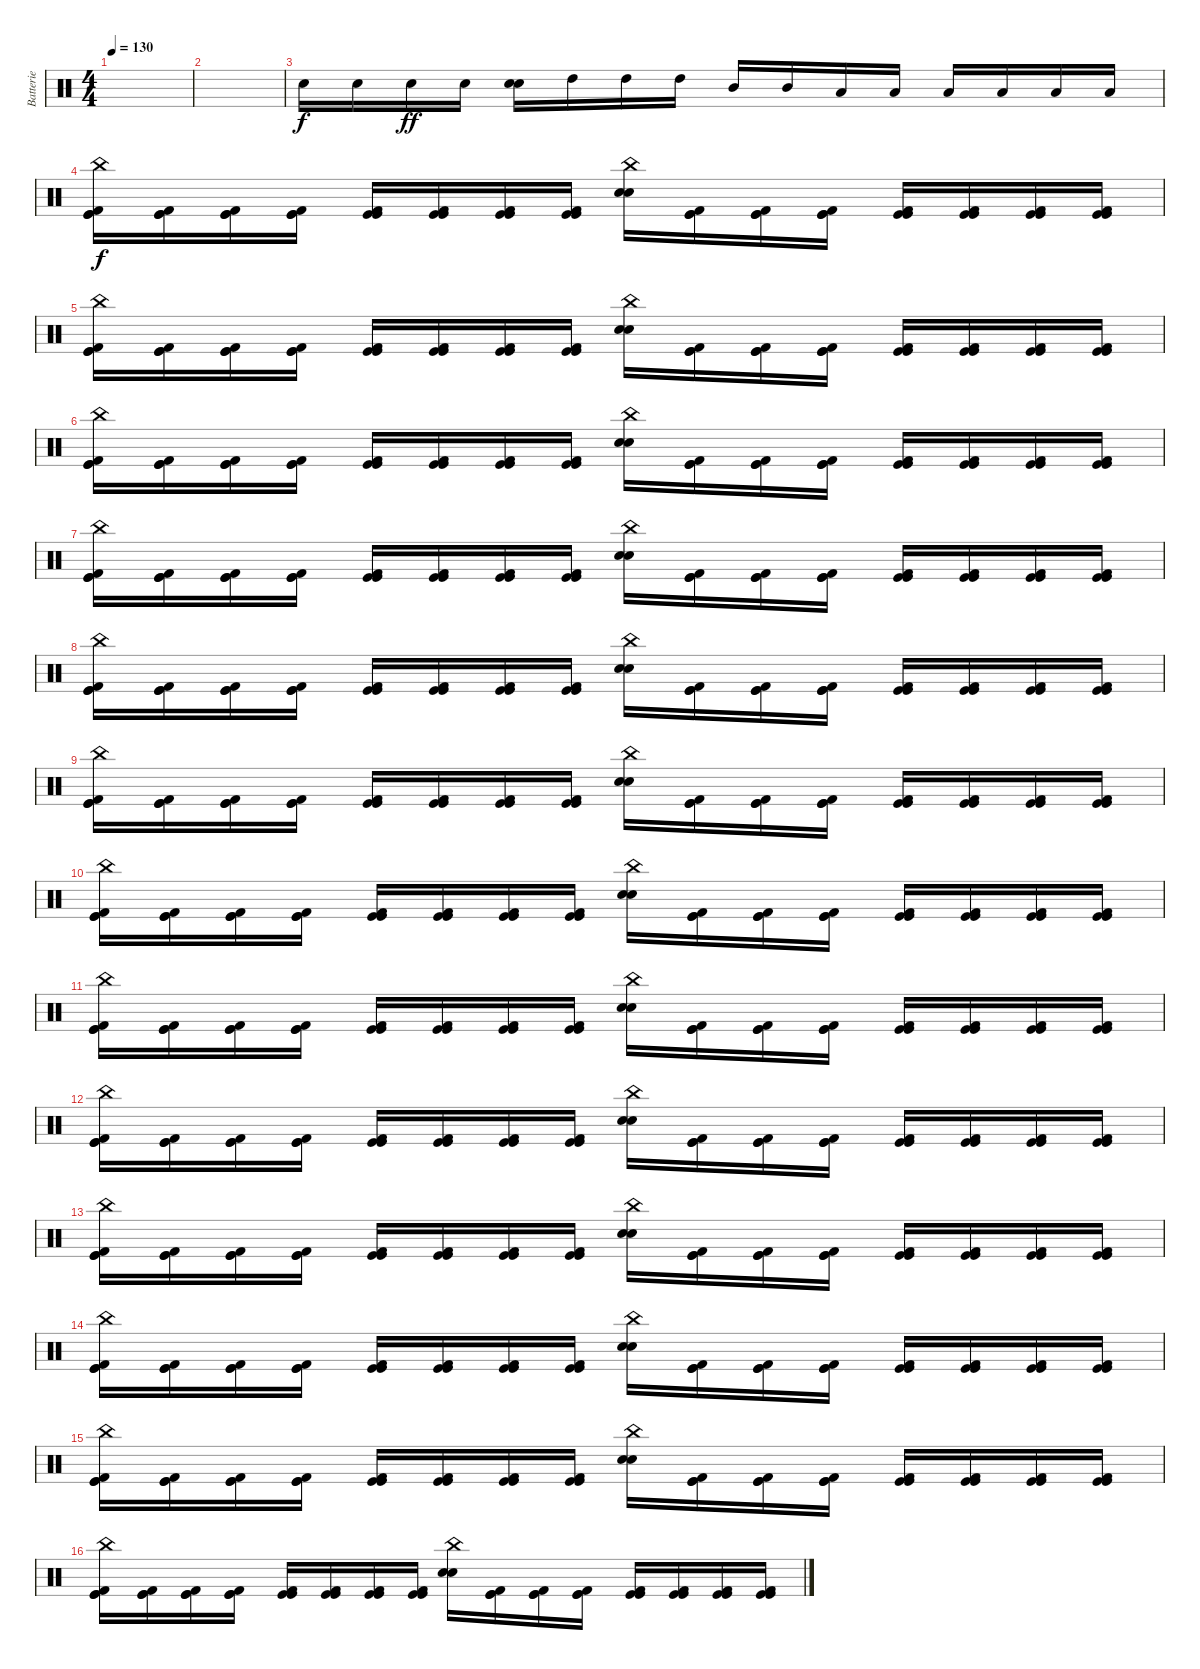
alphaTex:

\track ("Batterie" "Batterie") {instrument percussion}
\staff {score}
\articulation defaults
\ts (4 4)
\tempo 130
\clef neutral
\ks c
|
|
"Electric Snare (hit)".16 "Electric Snare (hit)".16 "Electric Snare (hit)".16{dy ff} "Electric Snare (hit)".16 ("Electric Snare (hit)" "Electric Snare (hit)").16 "High Tom (hit)".16 "High Tom (hit)".16 "High Tom (hit)".16 "Mid Tom (hit)".16 "Mid Tom (hit)".16 "Low Tom (hit)".16 "Low Tom (hit)".16 "Low Floor Tom (hit)".16 "Low Floor Tom (hit)".16 "Low Floor Tom (hit)".16 "Low Floor Tom (hit)".16 |
("China (hit)" "Kick (hit)" "Kick (hit) 2" "Kick (hit)").16{dy f} ("Kick (hit)" "Kick (hit)" "Kick (hit) 2").16 ("Kick (hit)" "Kick (hit) 2" "Kick (hit)").16 ("Kick (hit)" "Kick (hit)" "Kick (hit) 2").16 ("Kick (hit)" "Kick (hit) 2" "Kick (hit)").16 ("Kick (hit)" "Kick (hit)" "Kick (hit) 2").16 ("Kick (hit)" "Kick (hit) 2" "Kick (hit)").16 ("Kick (hit)" "Kick (hit)" "Kick (hit) 2").16 ("China (hit)" "Electric Snare (hit)" "Electric Snare (hit)").16 ("Kick (hit)" "Kick (hit)" "Kick (hit) 2").16 ("Kick (hit)" "Kick (hit) 2" "Kick (hit)").16 ("Kick (hit)" "Kick (hit)" "Kick (hit) 2").16 ("Kick (hit)" "Kick (hit) 2" "Kick (hit)").16 ("Kick (hit)" "Kick (hit)" "Kick (hit) 2").16 ("Kick (hit)" "Kick (hit) 2" "Kick (hit)").16 ("Kick (hit)" "Kick (hit) 2" "Kick (hit)").16 |
("China (hit)" "Kick (hit)" "Kick (hit) 2" "Kick (hit)").16 ("Kick (hit)" "Kick (hit)" "Kick (hit) 2").16 ("Kick (hit)" "Kick (hit) 2" "Kick (hit)").16 ("Kick (hit)" "Kick (hit)" "Kick (hit) 2").16 ("Kick (hit)" "Kick (hit) 2" "Kick (hit)").16 ("Kick (hit)" "Kick (hit)" "Kick (hit) 2").16 ("Kick (hit)" "Kick (hit) 2" "Kick (hit)").16 ("Kick (hit)" "Kick (hit)" "Kick (hit) 2").16 ("China (hit)" "Electric Snare (hit)" "Electric Snare (hit)").16 ("Kick (hit)" "Kick (hit)" "Kick (hit) 2").16 ("Kick (hit)" "Kick (hit) 2" "Kick (hit)").16 ("Kick (hit)" "Kick (hit)" "Kick (hit) 2").16 ("Kick (hit)" "Kick (hit) 2" "Kick (hit)").16 ("Kick (hit)" "Kick (hit)" "Kick (hit) 2").16 ("Kick (hit)" "Kick (hit) 2" "Kick (hit)").16 ("Kick (hit)" "Kick (hit) 2" "Kick (hit)").16 |
("China (hit)" "Kick (hit)" "Kick (hit) 2" "Kick (hit)").16 ("Kick (hit)" "Kick (hit)" "Kick (hit) 2").16 ("Kick (hit)" "Kick (hit) 2" "Kick (hit)").16 ("Kick (hit)" "Kick (hit)" "Kick (hit) 2").16 ("Kick (hit)" "Kick (hit) 2" "Kick (hit)").16 ("Kick (hit)" "Kick (hit)" "Kick (hit) 2").16 ("Kick (hit)" "Kick (hit) 2" "Kick (hit)").16 ("Kick (hit)" "Kick (hit)" "Kick (hit) 2").16 ("China (hit)" "Electric Snare (hit)" "Electric Snare (hit)").16 ("Kick (hit)" "Kick (hit)" "Kick (hit) 2").16 ("Kick (hit)" "Kick (hit) 2" "Kick (hit)").16 ("Kick (hit)" "Kick (hit)" "Kick (hit) 2").16 ("Kick (hit)" "Kick (hit) 2" "Kick (hit)").16 ("Kick (hit)" "Kick (hit)" "Kick (hit) 2").16 ("Kick (hit)" "Kick (hit) 2" "Kick (hit)").16 ("Kick (hit)" "Kick (hit) 2" "Kick (hit)").16 |
("China (hit)" "Kick (hit)" "Kick (hit) 2" "Kick (hit)").16 ("Kick (hit)" "Kick (hit)" "Kick (hit) 2").16 ("Kick (hit)" "Kick (hit) 2" "Kick (hit)").16 ("Kick (hit)" "Kick (hit)" "Kick (hit) 2").16 ("Kick (hit)" "Kick (hit) 2" "Kick (hit)").16 ("Kick (hit)" "Kick (hit)" "Kick (hit) 2").16 ("Kick (hit)" "Kick (hit) 2" "Kick (hit)").16 ("Kick (hit)" "Kick (hit)" "Kick (hit) 2").16 ("China (hit)" "Electric Snare (hit)" "Electric Snare (hit)").16 ("Kick (hit)" "Kick (hit)" "Kick (hit) 2").16 ("Kick (hit)" "Kick (hit) 2" "Kick (hit)").16 ("Kick (hit)" "Kick (hit)" "Kick (hit) 2").16 ("Kick (hit)" "Kick (hit) 2" "Kick (hit)").16 ("Kick (hit)" "Kick (hit)" "Kick (hit) 2").16 ("Kick (hit)" "Kick (hit) 2" "Kick (hit)").16 ("Kick (hit)" "Kick (hit) 2" "Kick (hit)").16 |
("China (hit)" "Kick (hit)" "Kick (hit) 2" "Kick (hit)").16 ("Kick (hit)" "Kick (hit)" "Kick (hit) 2").16 ("Kick (hit)" "Kick (hit) 2" "Kick (hit)").16 ("Kick (hit)" "Kick (hit)" "Kick (hit) 2").16 ("Kick (hit)" "Kick (hit) 2" "Kick (hit)").16 ("Kick (hit)" "Kick (hit)" "Kick (hit) 2").16 ("Kick (hit)" "Kick (hit) 2" "Kick (hit)").16 ("Kick (hit)" "Kick (hit)" "Kick (hit) 2").16 ("China (hit)" "Electric Snare (hit)" "Electric Snare (hit)").16 ("Kick (hit)" "Kick (hit)" "Kick (hit) 2").16 ("Kick (hit)" "Kick (hit) 2" "Kick (hit)").16 ("Kick (hit)" "Kick (hit)" "Kick (hit) 2").16 ("Kick (hit)" "Kick (hit) 2" "Kick (hit)").16 ("Kick (hit)" "Kick (hit)" "Kick (hit) 2").16 ("Kick (hit)" "Kick (hit) 2" "Kick (hit)").16 ("Kick (hit)" "Kick (hit) 2" "Kick (hit)").16 |
("China (hit)" "Kick (hit)" "Kick (hit) 2" "Kick (hit)").16 ("Kick (hit)" "Kick (hit)" "Kick (hit) 2").16 ("Kick (hit)" "Kick (hit) 2" "Kick (hit)").16 ("Kick (hit)" "Kick (hit)" "Kick (hit) 2").16 ("Kick (hit)" "Kick (hit) 2" "Kick (hit)").16 ("Kick (hit)" "Kick (hit)" "Kick (hit) 2").16 ("Kick (hit)" "Kick (hit) 2" "Kick (hit)").16 ("Kick (hit)" "Kick (hit)" "Kick (hit) 2").16 ("China (hit)" "Electric Snare (hit)" "Electric Snare (hit)").16 ("Kick (hit)" "Kick (hit)" "Kick (hit) 2").16 ("Kick (hit)" "Kick (hit) 2" "Kick (hit)").16 ("Kick (hit)" "Kick (hit)" "Kick (hit) 2").16 ("Kick (hit)" "Kick (hit) 2" "Kick (hit)").16 ("Kick (hit)" "Kick (hit)" "Kick (hit) 2").16 ("Kick (hit)" "Kick (hit) 2" "Kick (hit)").16 ("Kick (hit)" "Kick (hit) 2" "Kick (hit)").16 |
("China (hit)" "Kick (hit)" "Kick (hit) 2" "Kick (hit)").16 ("Kick (hit)" "Kick (hit)" "Kick (hit) 2").16 ("Kick (hit)" "Kick (hit) 2" "Kick (hit)").16 ("Kick (hit)" "Kick (hit)" "Kick (hit) 2").16 ("Kick (hit)" "Kick (hit) 2" "Kick (hit)").16 ("Kick (hit)" "Kick (hit)" "Kick (hit) 2").16 ("Kick (hit)" "Kick (hit) 2" "Kick (hit)").16 ("Kick (hit)" "Kick (hit)" "Kick (hit) 2").16 ("China (hit)" "Electric Snare (hit)" "Electric Snare (hit)").16 ("Kick (hit)" "Kick (hit)" "Kick (hit) 2").16 ("Kick (hit)" "Kick (hit) 2" "Kick (hit)").16 ("Kick (hit)" "Kick (hit)" "Kick (hit) 2").16 ("Kick (hit)" "Kick (hit) 2" "Kick (hit)").16 ("Kick (hit)" "Kick (hit)" "Kick (hit) 2").16 ("Kick (hit)" "Kick (hit) 2" "Kick (hit)").16 ("Kick (hit)" "Kick (hit) 2" "Kick (hit)").16 |
("China (hit)" "Kick (hit)" "Kick (hit) 2" "Kick (hit)").16 ("Kick (hit)" "Kick (hit)" "Kick (hit) 2").16 ("Kick (hit)" "Kick (hit) 2" "Kick (hit)").16 ("Kick (hit)" "Kick (hit)" "Kick (hit) 2").16 ("Kick (hit)" "Kick (hit) 2" "Kick (hit)").16 ("Kick (hit)" "Kick (hit)" "Kick (hit) 2").16 ("Kick (hit)" "Kick (hit) 2" "Kick (hit)").16 ("Kick (hit)" "Kick (hit)" "Kick (hit) 2").16 ("China (hit)" "Electric Snare (hit)" "Electric Snare (hit)").16 ("Kick (hit)" "Kick (hit)" "Kick (hit) 2").16 ("Kick (hit)" "Kick (hit) 2" "Kick (hit)").16 ("Kick (hit)" "Kick (hit)" "Kick (hit) 2").16 ("Kick (hit)" "Kick (hit) 2" "Kick (hit)").16 ("Kick (hit)" "Kick (hit)" "Kick (hit) 2").16 ("Kick (hit)" "Kick (hit) 2" "Kick (hit)").16 ("Kick (hit)" "Kick (hit) 2" "Kick (hit)").16 |
("China (hit)" "Kick (hit)" "Kick (hit) 2" "Kick (hit)").16 ("Kick (hit)" "Kick (hit)" "Kick (hit) 2").16 ("Kick (hit)" "Kick (hit) 2" "Kick (hit)").16 ("Kick (hit)" "Kick (hit)" "Kick (hit) 2").16 ("Kick (hit)" "Kick (hit) 2" "Kick (hit)").16 ("Kick (hit)" "Kick (hit)" "Kick (hit) 2").16 ("Kick (hit)" "Kick (hit) 2" "Kick (hit)").16 ("Kick (hit)" "Kick (hit)" "Kick (hit) 2").16 ("China (hit)" "Electric Snare (hit)" "Electric Snare (hit)").16 ("Kick (hit)" "Kick (hit)" "Kick (hit) 2").16 ("Kick (hit)" "Kick (hit) 2" "Kick (hit)").16 ("Kick (hit)" "Kick (hit)" "Kick (hit) 2").16 ("Kick (hit)" "Kick (hit) 2" "Kick (hit)").16 ("Kick (hit)" "Kick (hit)" "Kick (hit) 2").16 ("Kick (hit)" "Kick (hit) 2" "Kick (hit)").16 ("Kick (hit)" "Kick (hit) 2" "Kick (hit)").16 |
("China (hit)" "Kick (hit)" "Kick (hit) 2" "Kick (hit)").16 ("Kick (hit)" "Kick (hit)" "Kick (hit) 2").16 ("Kick (hit)" "Kick (hit) 2" "Kick (hit)").16 ("Kick (hit)" "Kick (hit)" "Kick (hit) 2").16 ("Kick (hit)" "Kick (hit) 2" "Kick (hit)").16 ("Kick (hit)" "Kick (hit)" "Kick (hit) 2").16 ("Kick (hit)" "Kick (hit) 2" "Kick (hit)").16 ("Kick (hit)" "Kick (hit)" "Kick (hit) 2").16 ("China (hit)" "Electric Snare (hit)" "Electric Snare (hit)").16 ("Kick (hit)" "Kick (hit)" "Kick (hit) 2").16 ("Kick (hit)" "Kick (hit) 2" "Kick (hit)").16 ("Kick (hit)" "Kick (hit)" "Kick (hit) 2").16 ("Kick (hit)" "Kick (hit) 2" "Kick (hit)").16 ("Kick (hit)" "Kick (hit)" "Kick (hit) 2").16 ("Kick (hit)" "Kick (hit) 2" "Kick (hit)").16 ("Kick (hit)" "Kick (hit) 2" "Kick (hit)").16 |
("China (hit)" "Kick (hit)" "Kick (hit) 2" "Kick (hit)").16 ("Kick (hit)" "Kick (hit)" "Kick (hit) 2").16 ("Kick (hit)" "Kick (hit) 2" "Kick (hit)").16 ("Kick (hit)" "Kick (hit)" "Kick (hit) 2").16 ("Kick (hit)" "Kick (hit) 2" "Kick (hit)").16 ("Kick (hit)" "Kick (hit)" "Kick (hit) 2").16 ("Kick (hit)" "Kick (hit) 2" "Kick (hit)").16 ("Kick (hit)" "Kick (hit)" "Kick (hit) 2").16 ("China (hit)" "Electric Snare (hit)" "Electric Snare (hit)").16 ("Kick (hit)" "Kick (hit)" "Kick (hit) 2").16 ("Kick (hit)" "Kick (hit) 2" "Kick (hit)").16 ("Kick (hit)" "Kick (hit)" "Kick (hit) 2").16 ("Kick (hit)" "Kick (hit) 2" "Kick (hit)").16 ("Kick (hit)" "Kick (hit)" "Kick (hit) 2").16 ("Kick (hit)" "Kick (hit) 2" "Kick (hit)").16 ("Kick (hit)" "Kick (hit) 2" "Kick (hit)").16 |
("China (hit)" "Kick (hit)" "Kick (hit) 2" "Kick (hit)").16 ("Kick (hit)" "Kick (hit)" "Kick (hit) 2").16 ("Kick (hit)" "Kick (hit) 2" "Kick (hit)").16 ("Kick (hit)" "Kick (hit)" "Kick (hit) 2").16 ("Kick (hit)" "Kick (hit) 2" "Kick (hit)").16 ("Kick (hit)" "Kick (hit)" "Kick (hit) 2").16 ("Kick (hit)" "Kick (hit) 2" "Kick (hit)").16 ("Kick (hit)" "Kick (hit)" "Kick (hit) 2").16 ("China (hit)" "Electric Snare (hit)" "Electric Snare (hit)").16 ("Kick (hit)" "Kick (hit)" "Kick (hit) 2").16 ("Kick (hit)" "Kick (hit) 2" "Kick (hit)").16 ("Kick (hit)" "Kick (hit)" "Kick (hit) 2").16 ("Kick (hit)" "Kick (hit) 2" "Kick (hit)").16 ("Kick (hit)" "Kick (hit)" "Kick (hit) 2").16 ("Kick (hit)" "Kick (hit) 2" "Kick (hit)").16 ("Kick (hit)" "Kick (hit) 2" "Kick (hit)").16 |
("China (hit)" "Kick (hit)" "Kick (hit) 2" "Kick (hit)").16 ("Kick (hit)" "Kick (hit)" "Kick (hit) 2").16 ("Kick (hit)" "Kick (hit) 2" "Kick (hit)").16 ("Kick (hit)" "Kick (hit)" "Kick (hit) 2").16 ("Kick (hit)" "Kick (hit) 2" "Kick (hit)").16 ("Kick (hit)" "Kick (hit)" "Kick (hit) 2").16 ("Kick (hit)" "Kick (hit) 2" "Kick (hit)").16 ("Kick (hit)" "Kick (hit)" "Kick (hit) 2").16 ("China (hit)" "Electric Snare (hit)" "Electric Snare (hit)").16 ("Kick (hit)" "Kick (hit)" "Kick (hit) 2").16 ("Kick (hit)" "Kick (hit) 2" "Kick (hit)").16 ("Kick (hit)" "Kick (hit)" "Kick (hit) 2").16 ("Kick (hit)" "Kick (hit) 2" "Kick (hit)").16 ("Kick (hit)" "Kick (hit)" "Kick (hit) 2").16 ("Kick (hit)" "Kick (hit) 2" "Kick (hit)").16 ("Kick (hit)" "Kick (hit) 2" "Kick (hit)").16
